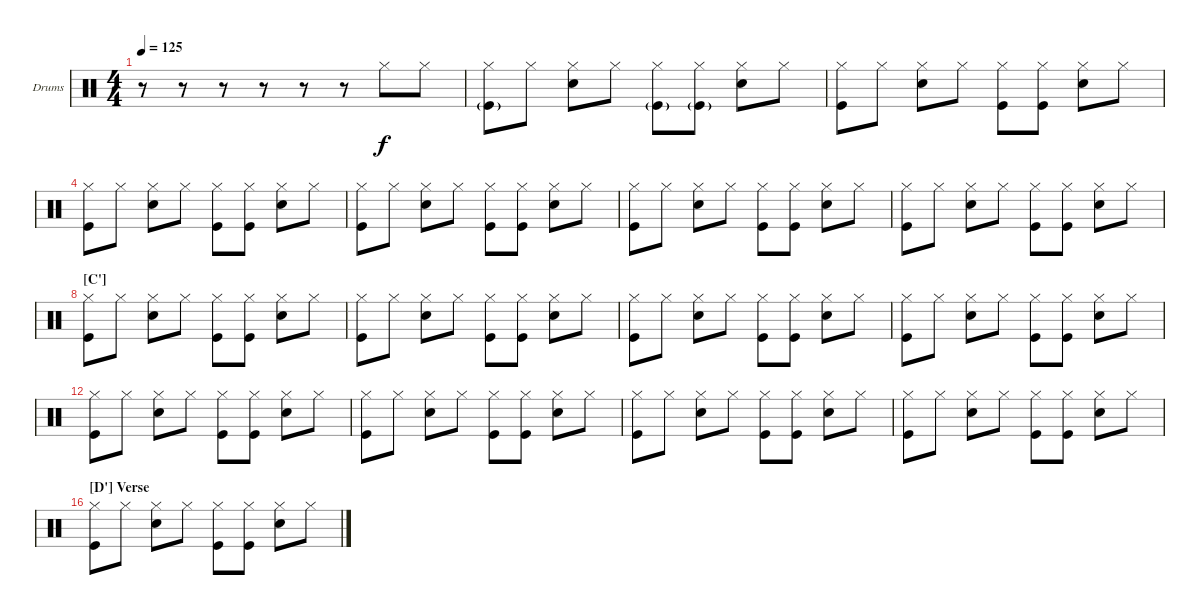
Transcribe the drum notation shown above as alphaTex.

\bracketExtendMode nobrackets
\firstSystemTrackNameOrientation horizontal
\otherSystemsTrackNameOrientation horizontal
\defaultBarNumberDisplay FirstOfSystem
\track ("Drumkit" "Drums") {instrument percussion}
\staff {score}
\articulation defaults
\ts (4 4)
\tempo 125
\clef neutral
\ks c
r.8{dy f} r.8 r.8 r.8 r.8 r.8 "Hi-Hat (closed)".8 "Hi-Hat (closed)".8 |
("Hi-Hat (closed)" "Kick (hit)"{g}).8 "Hi-Hat (closed)".8 ("Hi-Hat (closed)" "Snare (hit) 2").8 "Hi-Hat (closed)".8 ("Hi-Hat (closed)" "Kick (hit)"{g}).8 ("Hi-Hat (closed)" "Kick (hit)"{g}).8 ("Hi-Hat (closed)" "Snare (hit) 2").8 "Hi-Hat (closed)".8 |
("Hi-Hat (closed)" "Kick (hit)").8 "Hi-Hat (closed)".8 ("Hi-Hat (closed)" "Snare (hit) 2").8 "Hi-Hat (closed)".8 ("Hi-Hat (closed)" "Kick (hit)").8 ("Hi-Hat (closed)" "Kick (hit)").8 ("Hi-Hat (closed)" "Snare (hit) 2").8 "Hi-Hat (closed)".8 |
("Kick (hit)" "Hi-Hat (closed)").8 "Hi-Hat (closed)".8 ("Hi-Hat (closed)" "Snare (hit) 2").8 "Hi-Hat (closed)".8 ("Hi-Hat (closed)" "Kick (hit)").8 ("Hi-Hat (closed)" "Kick (hit)").8 ("Hi-Hat (closed)" "Snare (hit) 2").8 "Hi-Hat (closed)".8 |
("Hi-Hat (closed)" "Kick (hit)").8 "Hi-Hat (closed)".8 ("Hi-Hat (closed)" "Snare (hit) 2").8 "Hi-Hat (closed)".8 ("Hi-Hat (closed)" "Kick (hit)").8 ("Hi-Hat (closed)" "Kick (hit)").8 ("Hi-Hat (closed)" "Snare (hit) 2").8 "Hi-Hat (closed)".8 |
("Hi-Hat (closed)" "Kick (hit)").8 "Hi-Hat (closed)".8 ("Hi-Hat (closed)" "Snare (hit) 2").8 "Hi-Hat (closed)".8 ("Hi-Hat (closed)" "Kick (hit)").8 ("Hi-Hat (closed)" "Kick (hit)").8 ("Hi-Hat (closed)" "Snare (hit) 2").8 "Hi-Hat (closed)".8 |
("Hi-Hat (closed)" "Kick (hit)").8 "Hi-Hat (closed)".8 ("Hi-Hat (closed)" "Snare (hit) 2").8 "Hi-Hat (closed)".8 ("Hi-Hat (closed)" "Kick (hit)").8 ("Hi-Hat (closed)" "Kick (hit)").8 ("Hi-Hat (closed)" "Snare (hit) 2").8 "Hi-Hat (closed)".8 |
\section ("C'" "")
("Hi-Hat (closed)" "Kick (hit)").8 "Hi-Hat (closed)".8 ("Hi-Hat (closed)" "Snare (hit) 2").8 "Hi-Hat (closed)".8 ("Hi-Hat (closed)" "Kick (hit)").8 ("Hi-Hat (closed)" "Kick (hit)").8 ("Hi-Hat (closed)" "Snare (hit) 2").8 "Hi-Hat (closed)".8 |
("Hi-Hat (closed)" "Kick (hit)").8 "Hi-Hat (closed)".8 ("Hi-Hat (closed)" "Snare (hit) 2").8 "Hi-Hat (closed)".8 ("Hi-Hat (closed)" "Kick (hit)").8 ("Hi-Hat (closed)" "Kick (hit)").8 ("Hi-Hat (closed)" "Snare (hit) 2").8 "Hi-Hat (closed)".8 |
("Hi-Hat (closed)" "Kick (hit)").8 "Hi-Hat (closed)".8 ("Hi-Hat (closed)" "Snare (hit) 2").8 "Hi-Hat (closed)".8 ("Hi-Hat (closed)" "Kick (hit)").8 ("Hi-Hat (closed)" "Kick (hit)").8 ("Hi-Hat (closed)" "Snare (hit) 2").8 "Hi-Hat (closed)".8 |
("Hi-Hat (closed)" "Kick (hit)").8 "Hi-Hat (closed)".8 ("Hi-Hat (closed)" "Snare (hit) 2").8 "Hi-Hat (closed)".8 ("Hi-Hat (closed)" "Kick (hit)").8 ("Hi-Hat (closed)" "Kick (hit)").8 ("Hi-Hat (closed)" "Snare (hit) 2").8 "Hi-Hat (closed)".8 |
("Hi-Hat (closed)" "Kick (hit)").8 "Hi-Hat (closed)".8 ("Hi-Hat (closed)" "Snare (hit) 2").8 "Hi-Hat (closed)".8 ("Hi-Hat (closed)" "Kick (hit)").8 ("Hi-Hat (closed)" "Kick (hit)").8 ("Hi-Hat (closed)" "Snare (hit) 2").8 "Hi-Hat (closed)".8 |
("Hi-Hat (closed)" "Kick (hit)").8 "Hi-Hat (closed)".8 ("Hi-Hat (closed)" "Snare (hit) 2").8 "Hi-Hat (closed)".8 ("Hi-Hat (closed)" "Kick (hit)").8 ("Hi-Hat (closed)" "Kick (hit)").8 ("Hi-Hat (closed)" "Snare (hit) 2").8 "Hi-Hat (closed)".8 |
("Hi-Hat (closed)" "Kick (hit)").8 "Hi-Hat (closed)".8 ("Hi-Hat (closed)" "Snare (hit) 2").8 "Hi-Hat (closed)".8 ("Hi-Hat (closed)" "Kick (hit)").8 ("Hi-Hat (closed)" "Kick (hit)").8 ("Hi-Hat (closed)" "Snare (hit) 2").8 "Hi-Hat (closed)".8 |
("Hi-Hat (closed)" "Kick (hit)").8 "Hi-Hat (closed)".8 ("Hi-Hat (closed)" "Snare (hit) 2").8 "Hi-Hat (closed)".8 ("Hi-Hat (closed)" "Kick (hit)").8 ("Hi-Hat (closed)" "Kick (hit)").8 ("Hi-Hat (closed)" "Snare (hit) 2").8 "Hi-Hat (closed)".8 |
\section ("D'" "Verse")
("Hi-Hat (closed)" "Kick (hit)").8 "Hi-Hat (closed)".8 ("Hi-Hat (closed)" "Snare (hit) 2").8 "Hi-Hat (closed)".8 ("Hi-Hat (closed)" "Kick (hit)").8 ("Hi-Hat (closed)" "Kick (hit)").8 ("Hi-Hat (closed)" "Snare (hit) 2").8 "Hi-Hat (closed)".8
